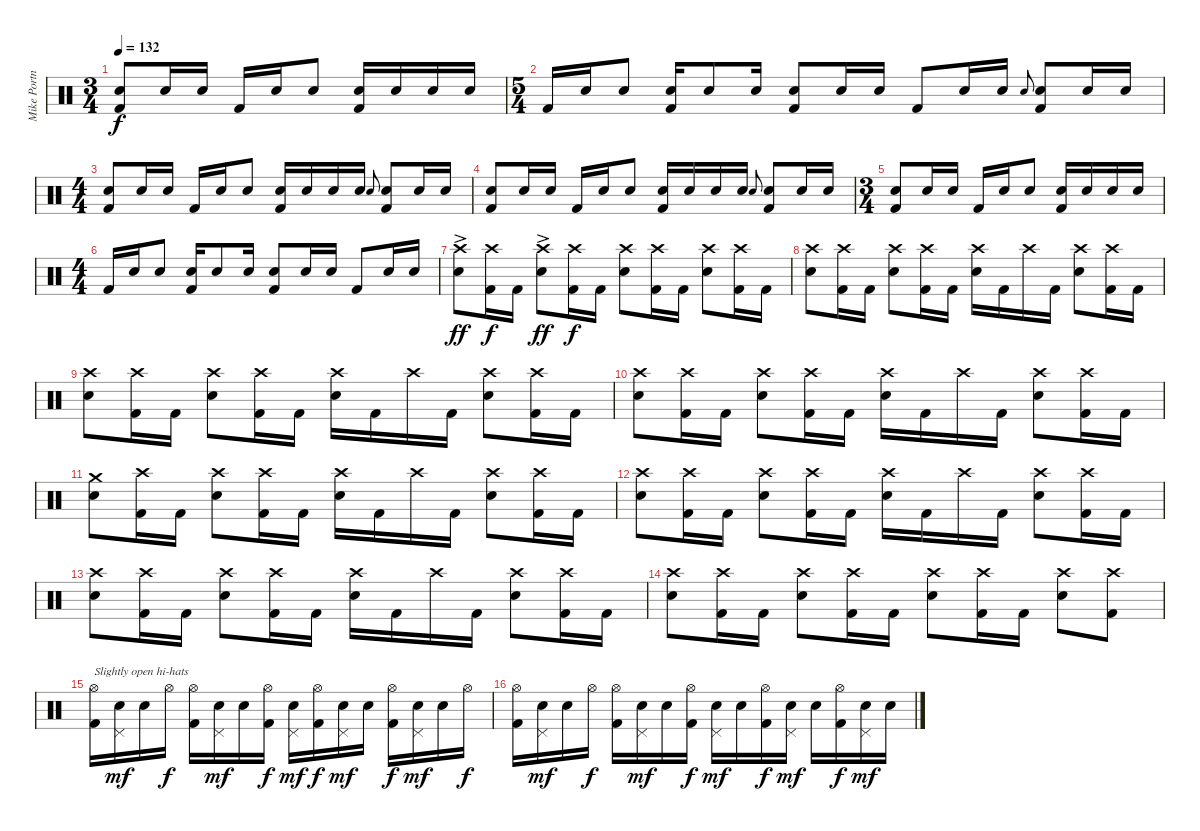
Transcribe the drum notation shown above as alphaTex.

\track ("Mike Portnoy" "Mike Portn") {instrument percussion}
\staff {score}
\articulation defaults
\ts (3 4)
\tempo 132
\clef neutral
\ks c
("Electric Snare (hit)" "Kick (hit) 2").8{dy f} "Electric Snare (hit)".16 "Electric Snare (hit)".16 "Kick (hit) 2".16 "Electric Snare (hit)".16 "Electric Snare (hit)".8 ("Electric Snare (hit)" "Kick (hit) 2").16 "Electric Snare (hit)".16 "Electric Snare (hit)".16 "Electric Snare (hit)".16 |
\ts (5 4)
"Kick (hit) 2".16 "Electric Snare (hit)".16 "Electric Snare (hit)".8 ("Electric Snare (hit)" "Kick (hit) 2").16 "Electric Snare (hit)".8 "Electric Snare (hit)".16 ("Electric Snare (hit)" "Kick (hit) 2").8 "Electric Snare (hit)".16 "Electric Snare (hit)".16 "Kick (hit) 2".8 "Electric Snare (hit)".16 "Electric Snare (hit)".16 "Electric Snare (hit)".8{gr onbeat} ("Electric Snare (hit)" "Kick (hit) 2").8 "Electric Snare (hit)".16 "Electric Snare (hit)".16 |
\ts (4 4)
("Electric Snare (hit)" "Kick (hit) 2").8 "Electric Snare (hit)".16 "Electric Snare (hit)".16 "Kick (hit) 2".16 "Electric Snare (hit)".16 "Electric Snare (hit)".8 ("Electric Snare (hit)" "Kick (hit) 2").16 "Electric Snare (hit)".16 "Electric Snare (hit)".16 "Electric Snare (hit)".16 "Electric Snare (hit)".8{gr onbeat} ("Electric Snare (hit)" "Kick (hit) 2").8 "Electric Snare (hit)".16 "Electric Snare (hit)".16 |
("Electric Snare (hit)" "Kick (hit) 2").8 "Electric Snare (hit)".16 "Electric Snare (hit)".16 "Kick (hit) 2".16 "Electric Snare (hit)".16 "Electric Snare (hit)".8 ("Electric Snare (hit)" "Kick (hit) 2").16 "Electric Snare (hit)".16 "Electric Snare (hit)".16 "Electric Snare (hit)".16 "Electric Snare (hit)".8{gr onbeat} ("Electric Snare (hit)" "Kick (hit) 2").8 "Electric Snare (hit)".16 "Electric Snare (hit)".16 |
\ts (3 4)
("Electric Snare (hit)" "Kick (hit) 2").8 "Electric Snare (hit)".16 "Electric Snare (hit)".16 "Kick (hit) 2".16 "Electric Snare (hit)".16 "Electric Snare (hit)".8 ("Electric Snare (hit)" "Kick (hit) 2").16 "Electric Snare (hit)".16 "Electric Snare (hit)".16 "Electric Snare (hit)".16 |
\ts (4 4)
"Kick (hit) 2".16 "Electric Snare (hit)".16 "Electric Snare (hit)".8 ("Electric Snare (hit)" "Kick (hit) 2").16 "Electric Snare (hit)".8 "Electric Snare (hit)".16 ("Electric Snare (hit)" "Kick (hit) 2").8 "Electric Snare (hit)".16 "Electric Snare (hit)".16 "Kick (hit) 2".8 "Electric Snare (hit)".16 "Electric Snare (hit)".16 |
("Crash high (hit)"{ac} "Electric Snare (hit)").8{dy ff} ("Crash high (hit)" "Kick (hit) 2").16{dy f} "Kick (hit) 2".16 ("Crash high (hit)"{ac} "Electric Snare (hit)").8{dy ff} ("Crash high (hit)" "Kick (hit) 2").16{dy f} "Kick (hit) 2".16 ("Crash high (hit)" "Electric Snare (hit)").8 ("Crash high (hit)" "Kick (hit) 2").16 "Kick (hit) 2".16 ("Crash high (hit)" "Electric Snare (hit)").8 ("Crash high (hit)" "Kick (hit) 2").16 "Kick (hit) 2".16 |
("Crash high (hit)" "Electric Snare (hit)").8 ("Crash high (hit)" "Kick (hit) 2").16 "Kick (hit) 2".16 ("Crash high (hit)" "Electric Snare (hit)").8 ("Crash high (hit)" "Kick (hit) 2").16 "Kick (hit) 2".16 ("Crash high (hit)" "Electric Snare (hit)").16 "Kick (hit) 2".16 "Crash high (hit)".16 "Kick (hit) 2".16 ("Crash high (hit)" "Electric Snare (hit)").8 ("Crash high (hit)" "Kick (hit) 2").16 "Kick (hit) 2".16 |
("Crash high (hit)" "Electric Snare (hit)").8 ("Crash high (hit)" "Kick (hit) 2").16 "Kick (hit) 2".16 ("Crash high (hit)" "Electric Snare (hit)").8 ("Crash high (hit)" "Kick (hit) 2").16 "Kick (hit) 2".16 ("Crash high (hit)" "Electric Snare (hit)").16 "Kick (hit) 2".16 "Crash high (hit)".16 "Kick (hit) 2".16 ("Crash high (hit)" "Electric Snare (hit)").8 ("Crash high (hit)" "Kick (hit) 2").16 "Kick (hit) 2".16 |
("Crash high (hit)" "Electric Snare (hit)").8 ("Crash high (hit)" "Kick (hit) 2").16 "Kick (hit) 2".16 ("Crash high (hit)" "Electric Snare (hit)").8 ("Crash high (hit)" "Kick (hit) 2").16 "Kick (hit) 2".16 ("Crash high (hit)" "Electric Snare (hit)").16 "Kick (hit) 2".16 "Crash high (hit)".16 "Kick (hit) 2".16 ("Crash high (hit)" "Electric Snare (hit)").8 ("Crash high (hit)" "Kick (hit) 2").16 "Kick (hit) 2".16 |
("Crash medium (hit)" "Electric Snare (hit)").8 ("Crash high (hit)" "Kick (hit) 2").16 "Kick (hit) 2".16 ("Crash high (hit)" "Electric Snare (hit)").8 ("Crash high (hit)" "Kick (hit) 2").16 "Kick (hit) 2".16 ("Crash high (hit)" "Electric Snare (hit)").16 "Kick (hit) 2".16 "Crash high (hit)".16 "Kick (hit) 2".16 ("Crash high (hit)" "Electric Snare (hit)").8 ("Crash high (hit)" "Kick (hit) 2").16 "Kick (hit) 2".16 |
("Crash high (hit)" "Electric Snare (hit)").8 ("Crash high (hit)" "Kick (hit) 2").16 "Kick (hit) 2".16 ("Crash high (hit)" "Electric Snare (hit)").8 ("Crash high (hit)" "Kick (hit) 2").16 "Kick (hit) 2".16 ("Crash high (hit)" "Electric Snare (hit)").16 "Kick (hit) 2".16 "Crash high (hit)".16 "Kick (hit) 2".16 ("Crash high (hit)" "Electric Snare (hit)").8 ("Crash high (hit)" "Kick (hit) 2").16 "Kick (hit) 2".16 |
("Crash high (hit)" "Electric Snare (hit)").8 ("Crash high (hit)" "Kick (hit) 2").16 "Kick (hit) 2".16 ("Crash high (hit)" "Electric Snare (hit)").8 ("Crash high (hit)" "Kick (hit) 2").16 "Kick (hit) 2".16 ("Crash high (hit)" "Electric Snare (hit)").16 "Kick (hit) 2".16 "Crash high (hit)".16 "Kick (hit) 2".16 ("Crash high (hit)" "Electric Snare (hit)").8 ("Crash high (hit)" "Kick (hit) 2").16 "Kick (hit) 2".16 |
("Crash high (hit)" "Electric Snare (hit)").8 ("Crash high (hit)" "Kick (hit) 2").16 "Kick (hit) 2".16 ("Crash high (hit)" "Electric Snare (hit)").8 ("Crash high (hit)" "Kick (hit) 2").16 "Kick (hit) 2".16 ("Crash high (hit)" "Electric Snare (hit)").8 ("Crash high (hit)" "Kick (hit) 2").16 "Kick (hit) 2".16 ("Crash high (hit)" "Electric Snare (hit)").8 ("Crash high (hit)" "Kick (hit) 2").8 |
("Hi-Hat (open)" "Kick (hit) 2").16{txt "Slightly open hi-hats"} ("Pedal Hi-Hat (hit)" "Electric Snare (hit)").16{dy mf} "Electric Snare (hit)".16 "Hi-Hat (open)".16{dy f} ("Hi-Hat (open)" "Kick (hit) 2").16 ("Pedal Hi-Hat (hit)" "Electric Snare (hit)").16{dy mf} "Electric Snare (hit)".16 ("Hi-Hat (open)" "Kick (hit) 2").16{dy f} ("Pedal Hi-Hat (hit)" "Electric Snare (hit)").16{dy mf} ("Hi-Hat (open)" "Kick (hit) 2").16{dy f} ("Pedal Hi-Hat (hit)" "Electric Snare (hit)").16{dy mf} "Electric Snare (hit)".16 ("Hi-Hat (open)" "Kick (hit) 2").16{dy f} ("Pedal Hi-Hat (hit)" "Electric Snare (hit)").16{dy mf} "Electric Snare (hit)".16 "Hi-Hat (open)".16{dy f} |
("Hi-Hat (open)" "Kick (hit) 2").16 ("Pedal Hi-Hat (hit)" "Electric Snare (hit)").16{dy mf} "Electric Snare (hit)".16 "Hi-Hat (open)".16{dy f} ("Hi-Hat (open)" "Kick (hit) 2").16 ("Pedal Hi-Hat (hit)" "Electric Snare (hit)").16{dy mf} "Electric Snare (hit)".16 ("Hi-Hat (open)" "Kick (hit) 2").16{dy f} ("Pedal Hi-Hat (hit)" "Electric Snare (hit)").16{dy mf} "Electric Snare (hit)".16 ("Hi-Hat (open)" "Kick (hit) 2").16{dy f} ("Pedal Hi-Hat (hit)" "Electric Snare (hit)").16{dy mf} "Electric Snare (hit)".16 ("Hi-Hat (open)" "Kick (hit) 2").16{dy f} ("Pedal Hi-Hat (hit)" "Electric Snare (hit)").16{dy mf} "Electric Snare (hit)".16
